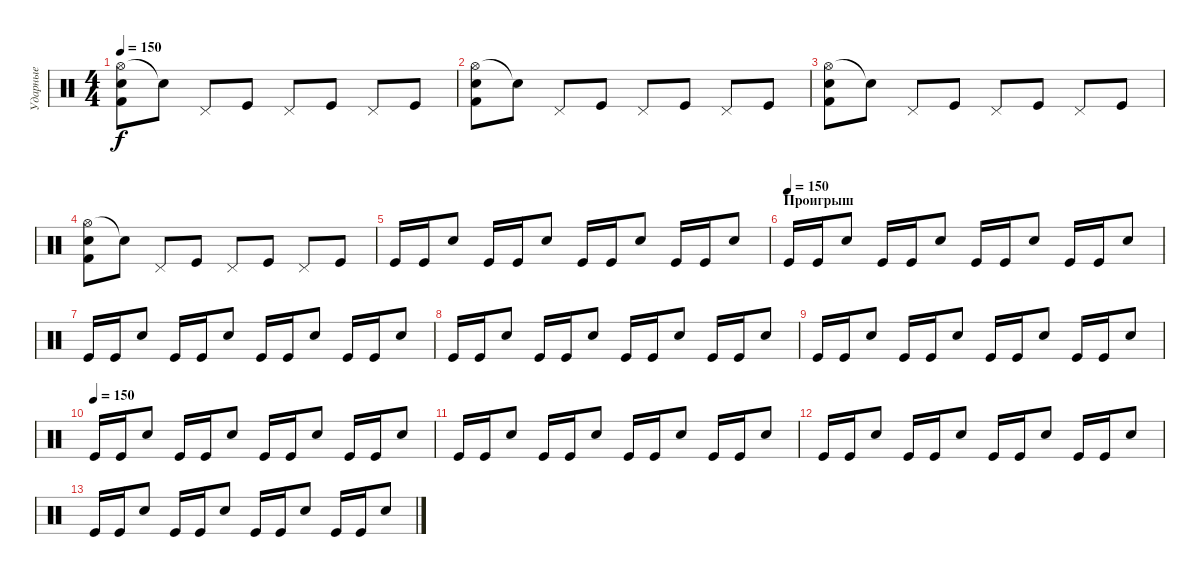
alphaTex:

\track ("Ударные" "Ударные") {instrument percussion}
\staff {score}
\articulation defaults
\ts (4 4)
\tempo 150
\clef neutral
\ks c
("Hi-Hat (open)" "Electric Snare (hit)" "Kick (hit) 2").8{dy f} "Electric Snare (hit)"{t}.8 "Pedal Hi-Hat (hit)".8 "Kick (hit)".8 "Pedal Hi-Hat (hit)".8 "Kick (hit)".8 "Pedal Hi-Hat (hit)".8 "Kick (hit)".8 |
("Hi-Hat (open)" "Electric Snare (hit)" "Kick (hit) 2").8 "Electric Snare (hit)"{t}.8 "Pedal Hi-Hat (hit)".8 "Kick (hit)".8 "Pedal Hi-Hat (hit)".8 "Kick (hit)".8 "Pedal Hi-Hat (hit)".8 "Kick (hit)".8 |
("Hi-Hat (open)" "Electric Snare (hit)" "Kick (hit) 2").8 "Electric Snare (hit)"{t}.8 "Pedal Hi-Hat (hit)".8 "Kick (hit)".8 "Pedal Hi-Hat (hit)".8 "Kick (hit)".8 "Pedal Hi-Hat (hit)".8 "Kick (hit)".8 |
("Hi-Hat (open)" "Electric Snare (hit)" "Kick (hit) 2").8 "Electric Snare (hit)"{t}.8 "Pedal Hi-Hat (hit)".8 "Kick (hit)".8 "Pedal Hi-Hat (hit)".8 "Kick (hit)".8 "Pedal Hi-Hat (hit)".8 "Kick (hit)".8 |
"Kick (hit)".16 "Kick (hit)".16 "Electric Snare (hit)".8 "Kick (hit)".16 "Kick (hit)".16 "Electric Snare (hit)".8 "Kick (hit)".16 "Kick (hit)".16 "Electric Snare (hit)".8 "Kick (hit)".16 "Kick (hit)".16 "Electric Snare (hit)".8 |
\section ("" "Проигрыш")
\tempo (150)
"Kick (hit)".16 "Kick (hit)".16 "Electric Snare (hit)".8 "Kick (hit)".16 "Kick (hit)".16 "Electric Snare (hit)".8 "Kick (hit)".16 "Kick (hit)".16 "Electric Snare (hit)".8 "Kick (hit)".16 "Kick (hit)".16 "Electric Snare (hit)".8 |
"Kick (hit)".16 "Kick (hit)".16 "Electric Snare (hit)".8 "Kick (hit)".16 "Kick (hit)".16 "Electric Snare (hit)".8 "Kick (hit)".16 "Kick (hit)".16 "Electric Snare (hit)".8 "Kick (hit)".16 "Kick (hit)".16 "Electric Snare (hit)".8 |
"Kick (hit)".16 "Kick (hit)".16 "Electric Snare (hit)".8 "Kick (hit)".16 "Kick (hit)".16 "Electric Snare (hit)".8 "Kick (hit)".16 "Kick (hit)".16 "Electric Snare (hit)".8 "Kick (hit)".16 "Kick (hit)".16 "Electric Snare (hit)".8 |
"Kick (hit)".16 "Kick (hit)".16 "Electric Snare (hit)".8 "Kick (hit)".16 "Kick (hit)".16 "Electric Snare (hit)".8 "Kick (hit)".16 "Kick (hit)".16 "Electric Snare (hit)".8 "Kick (hit)".16 "Kick (hit)".16 "Electric Snare (hit)".8 |
\tempo (150)
"Kick (hit)".16 "Kick (hit)".16 "Electric Snare (hit)".8 "Kick (hit)".16 "Kick (hit)".16 "Electric Snare (hit)".8 "Kick (hit)".16 "Kick (hit)".16 "Electric Snare (hit)".8 "Kick (hit)".16 "Kick (hit)".16 "Electric Snare (hit)".8 |
"Kick (hit)".16 "Kick (hit)".16 "Electric Snare (hit)".8 "Kick (hit)".16 "Kick (hit)".16 "Electric Snare (hit)".8 "Kick (hit)".16 "Kick (hit)".16 "Electric Snare (hit)".8 "Kick (hit)".16 "Kick (hit)".16 "Electric Snare (hit)".8 |
"Kick (hit)".16 "Kick (hit)".16 "Electric Snare (hit)".8 "Kick (hit)".16 "Kick (hit)".16 "Electric Snare (hit)".8 "Kick (hit)".16 "Kick (hit)".16 "Electric Snare (hit)".8 "Kick (hit)".16 "Kick (hit)".16 "Electric Snare (hit)".8 |
"Kick (hit)".16 "Kick (hit)".16 "Electric Snare (hit)".8 "Kick (hit)".16 "Kick (hit)".16 "Electric Snare (hit)".8 "Kick (hit)".16 "Kick (hit)".16 "Electric Snare (hit)".8 "Kick (hit)".16 "Kick (hit)".16 "Electric Snare (hit)".8
